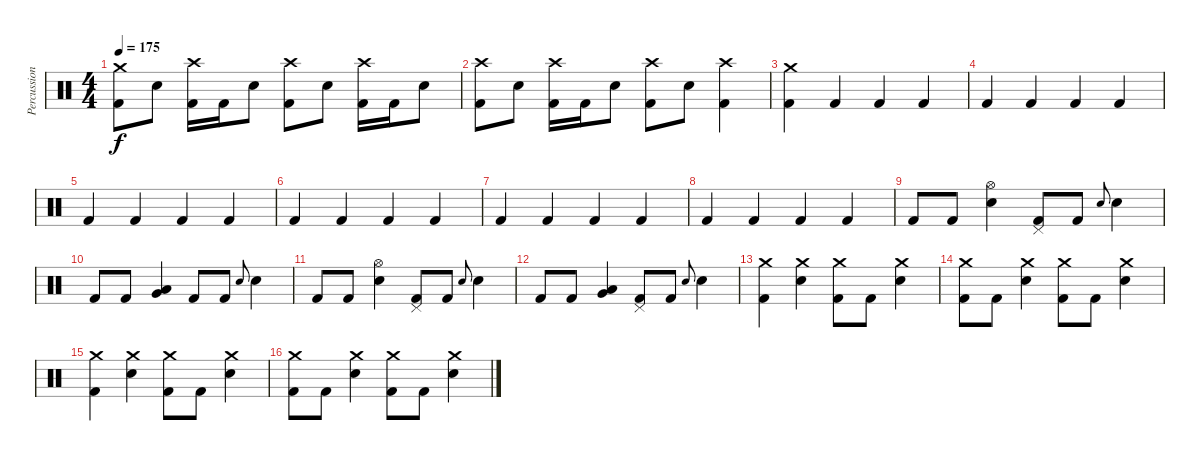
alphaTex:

\track ("Percussion" "Percussion") {instrument percussion}
\staff {score}
\articulation defaults
\ts (4 4)
\tempo 175
\clef neutral
\ks c
("Crash medium (hit)" "Kick (hit) 2").8{dy f} "Electric Snare (hit)".8 ("Crash high (hit)" "Kick (hit) 2").16 "Kick (hit) 2".16 "Electric Snare (hit)".8 ("Crash high (hit)" "Kick (hit) 2").8 "Electric Snare (hit)".8 ("Crash high (hit)" "Kick (hit) 2").16 "Kick (hit) 2".16 "Electric Snare (hit)".8 |
("Crash high (hit)" "Kick (hit) 2").8 "Electric Snare (hit)".8 ("Crash high (hit)" "Kick (hit) 2").16 "Kick (hit) 2".16 "Electric Snare (hit)".8 ("Crash high (hit)" "Kick (hit) 2").8 "Electric Snare (hit)".8 ("Crash high (hit)" "Kick (hit) 2").4 |
("Crash medium (hit)" "Kick (hit) 2").4 "Kick (hit) 2".4 "Kick (hit) 2".4 "Kick (hit) 2".4 |
"Kick (hit) 2".4 "Kick (hit) 2".4 "Kick (hit) 2".4 "Kick (hit) 2".4 |
"Kick (hit) 2".4 "Kick (hit) 2".4 "Kick (hit) 2".4 "Kick (hit) 2".4 |
"Kick (hit) 2".4 "Kick (hit) 2".4 "Kick (hit) 2".4 "Kick (hit) 2".4 |
"Kick (hit) 2".4 "Kick (hit) 2".4 "Kick (hit) 2".4 "Kick (hit) 2".4 |
"Kick (hit) 2".4 "Kick (hit) 2".4 "Kick (hit) 2".4 "Kick (hit) 2".4 |
"Kick (hit) 2".8 "Kick (hit) 2".8 ("Hi-Hat (open)" "Electric Snare (hit)").4 ("Pedal Hi-Hat (hit)" "Kick (hit) 2").8 "Kick (hit) 2".8 "Electric Snare (hit)".8{gr onbeat} "Electric Snare (hit)".4 |
"Kick (hit) 2".8 "Kick (hit) 2".8 ("Low Tom (hit)" "Very Low Tom (hit)").4 "Kick (hit) 2".8 "Kick (hit) 2".8 "Electric Snare (hit)".8{gr onbeat} "Electric Snare (hit)".4 |
"Kick (hit) 2".8 "Kick (hit) 2".8 ("Hi-Hat (open)" "Electric Snare (hit)").4 ("Pedal Hi-Hat (hit)" "Kick (hit) 2").8 "Kick (hit) 2".8 "Electric Snare (hit)".8{gr onbeat} "Electric Snare (hit)".4 |
"Kick (hit) 2".8 "Kick (hit) 2".8 ("Low Tom (hit)" "Very Low Tom (hit)").4 ("Pedal Hi-Hat (hit)" "Kick (hit) 2").8 "Kick (hit) 2".8 "Electric Snare (hit)".8{gr onbeat} "Electric Snare (hit)".4 |
("Crash medium (hit)" "Kick (hit) 2").4 ("Crash medium (hit)" "Electric Snare (hit)").4 ("Crash medium (hit)" "Kick (hit) 2").8 "Kick (hit) 2".8 ("Crash medium (hit)" "Electric Snare (hit)").4 |
("Crash medium (hit)" "Kick (hit) 2").8 "Kick (hit) 2".8 ("Crash medium (hit)" "Electric Snare (hit)").4 ("Crash medium (hit)" "Kick (hit) 2").8 "Kick (hit) 2".8 ("Crash medium (hit)" "Electric Snare (hit)").4 |
("Crash medium (hit)" "Kick (hit) 2").4 ("Crash medium (hit)" "Electric Snare (hit)").4 ("Crash medium (hit)" "Kick (hit) 2").8 "Kick (hit) 2".8 ("Crash medium (hit)" "Electric Snare (hit)").4 |
("Crash medium (hit)" "Kick (hit) 2").8 "Kick (hit) 2".8 ("Crash medium (hit)" "Electric Snare (hit)").4 ("Crash medium (hit)" "Kick (hit) 2").8 "Kick (hit) 2".8 ("Crash medium (hit)" "Electric Snare (hit)").4
